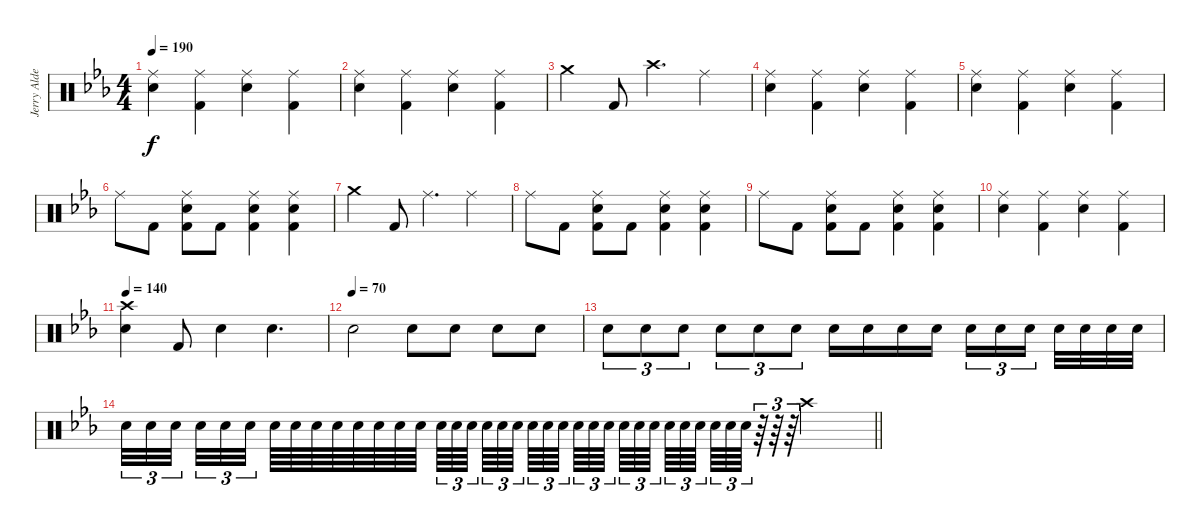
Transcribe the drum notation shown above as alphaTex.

\track ("Jerry Alder - Drums" "Jerry Alde") {instrument percussion}
\staff {score}
\articulation defaults
\ts (4 4)
\tempo 190
\clef neutral
\ks eb
("Ride (middle)" "Snare (hit) 2").4{dy f} ("Ride (middle)" "Kick (hit) 2").4 ("Ride (middle)" "Snare (hit) 2").4 ("Ride (middle)" "Kick (hit) 2").4 |
("Ride (middle)" "Snare (hit) 2").4 ("Ride (middle)" "Kick (hit) 2").4 ("Ride (middle)" "Snare (hit) 2").4 ("Ride (middle)" "Kick (hit) 2").4 |
"Crash medium (hit)".4 "Kick (hit) 2".8 "Crash high (hit)".4{d} "Ride (middle)".4 |
("Ride (middle)" "Snare (hit) 2").4 ("Ride (middle)" "Kick (hit) 2").4 ("Ride (middle)" "Snare (hit) 2").4 ("Ride (middle)" "Kick (hit) 2").4 |
("Ride (middle)" "Snare (hit) 2").4 ("Ride (middle)" "Kick (hit) 2").4 ("Ride (middle)" "Snare (hit) 2").4 ("Ride (middle)" "Kick (hit) 2").4 |
"Ride (middle)".8 "Kick (hit) 2".8 ("Ride (middle)" "Snare (hit) 2" "Kick (hit) 2").8 "Kick (hit) 2".8 ("Ride (middle)" "Snare (hit) 2" "Kick (hit) 2").4 ("Ride (middle)" "Snare (hit) 2" "Kick (hit) 2").4 |
"Crash medium (hit)".4 "Kick (hit) 2".8 "Ride (middle)".4{d} "Ride (middle)".4 |
"Ride (middle)".8 "Kick (hit) 2".8 ("Ride (middle)" "Snare (hit) 2" "Kick (hit) 2").8 "Kick (hit) 2".8 ("Ride (middle)" "Snare (hit) 2" "Kick (hit) 2").4 ("Ride (middle)" "Snare (hit) 2" "Kick (hit) 2").4 |
"Ride (middle)".8 "Kick (hit) 2".8 ("Ride (middle)" "Snare (hit) 2" "Kick (hit) 2").8 "Kick (hit) 2".8 ("Ride (middle)" "Snare (hit) 2" "Kick (hit) 2").4 ("Ride (middle)" "Snare (hit) 2" "Kick (hit) 2").4 |
("Ride (middle)" "Snare (hit) 2").4 ("Ride (middle)" "Kick (hit) 2").4 ("Ride (middle)" "Snare (hit) 2").4 ("Ride (middle)" "Kick (hit) 2").4 |
\tempo 140
("Crash high (hit)" "Snare (hit) 2").4 "Kick (hit) 2".8 "Snare (hit) 2".4 "Snare (hit) 2".4{d} |
\tempo (70)
"Snare (hit) 2".2 "Snare (hit) 2".8 "Snare (hit) 2".8 "Snare (hit) 2".8 "Snare (hit) 2".8 |
"Snare (hit) 2".8{tu (3 2)} "Snare (hit) 2".8{tu (3 2)} "Snare (hit) 2".8{tu (3 2)} "Snare (hit) 2".8{tu (3 2)} "Snare (hit) 2".8{tu (3 2)} "Snare (hit) 2".8{tu (3 2)} "Snare (hit) 2".16 "Snare (hit) 2".16 "Snare (hit) 2".16 "Snare (hit) 2".16 "Snare (hit) 2".16{tu (3 2)} "Snare (hit) 2".16{tu (3 2)} "Snare (hit) 2".16{tu (3 2) beam splitsecondary} "Snare (hit) 2".32 "Snare (hit) 2".32 "Snare (hit) 2".32 "Snare (hit) 2".32 |
\barLineRight lightlight "Snare (hit) 2".32{tu (3 2)} "Snare (hit) 2".32{tu (3 2)} "Snare (hit) 2".32{tu (3 2) beam splitsecondary} "Snare (hit) 2".32{tu (3 2)} "Snare (hit) 2".32{tu (3 2)} "Snare (hit) 2".32{tu (3 2) beam splitsecondary} "Snare (hit) 2".64 "Snare (hit) 2".64 "Snare (hit) 2".64 "Snare (hit) 2".64 "Snare (hit) 2".64 "Snare (hit) 2".64 "Snare (hit) 2".64 "Snare (hit) 2".64 "Snare (hit) 2".64{tu (3 2)} "Snare (hit) 2".64{tu (3 2)} "Snare (hit) 2".64{tu (3 2) beam splitsecondary} "Snare (hit) 2".64{tu (3 2)} "Snare (hit) 2".64{tu (3 2)} "Snare (hit) 2".64{tu (3 2) beam splitsecondary} "Snare (hit) 2".64{tu (3 2)} "Snare (hit) 2".64{tu (3 2)} "Snare (hit) 2".64{tu (3 2) beam splitsecondary} "Snare (hit) 2".64{tu (3 2)} "Snare (hit) 2".64{tu (3 2)} "Snare (hit) 2".64{tu (3 2) beam splitsecondary} "Snare (hit) 2".64{tu (3 2)} "Snare (hit) 2".64{tu (3 2)} "Snare (hit) 2".64{tu (3 2) beam splitsecondary} "Snare (hit) 2".64{tu (3 2)} "Snare (hit) 2".64{tu (3 2)} "Snare (hit) 2".64{tu (3 2) beam splitsecondary} "Snare (hit) 2".64{tu (3 2)} "Snare (hit) 2".64{tu (3 2)} "Snare (hit) 2".64{tu (3 2)}
r.64{tu (3 2)} r.64{tu (3 2)} r.64{tu (3 2)} "Crash high (hit)".2
